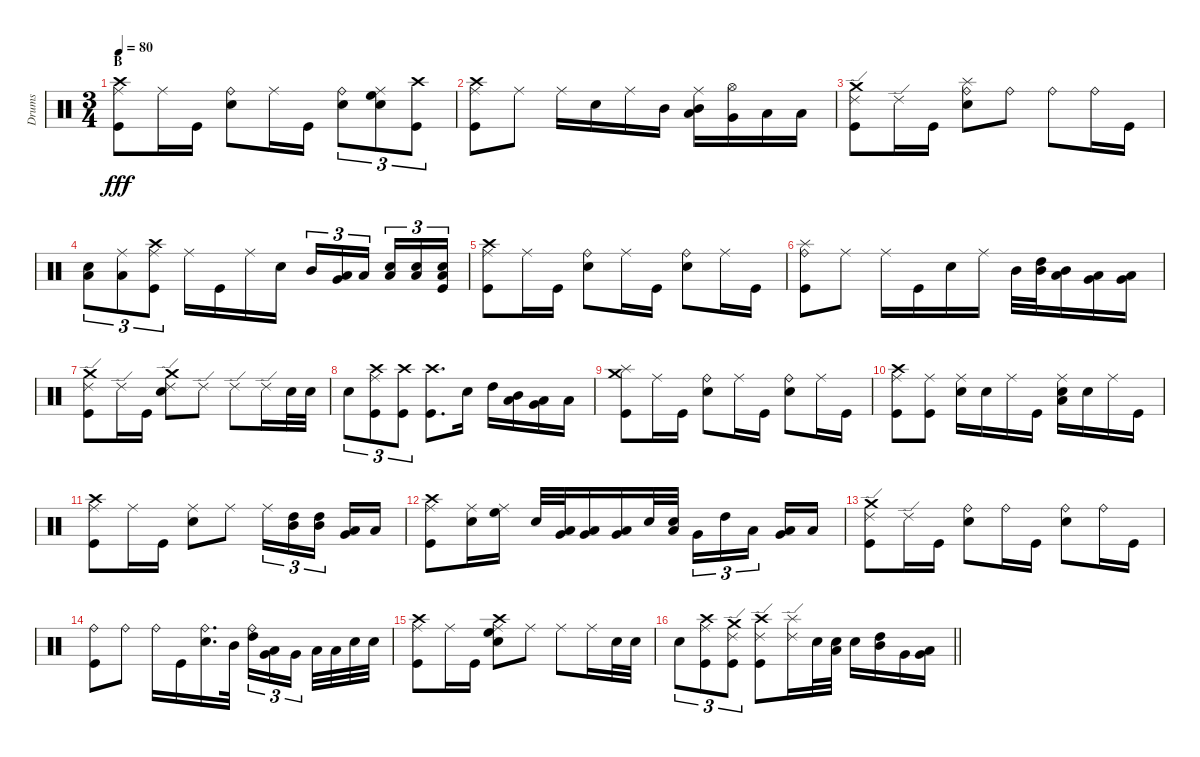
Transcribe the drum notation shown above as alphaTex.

\track ("Drums" "Drums") {instrument percussion}
\staff {score}
\articulation defaults
\ts (3 4)
\section ("" "B")
\tempo 80
\clef neutral
\ks c
("Ride (middle)" "Crash high (hit)" "Kick (hit)").8{dy fff} "Ride (middle)".16 "Kick (hit)".16 ("Ride (bell)" "Snare (hit) 2").8 "Ride (middle)".16 "Kick (hit)".16 ("Ride (bell)" "Snare (hit) 2").8{tu (3 2)} ("Ride (middle)" "High Floor Tom (hit)" "Snare (hit) 2").8{tu (3 2)} ("Crash high (hit)" "Kick (hit)").8{tu (3 2)} |
("Ride (middle)" "Crash high (hit)" "Kick (hit)").8 "Ride (middle)".8 "Ride (middle)".16 "Snare (hit) 2".16 "Ride (middle)".16 "Mid Tom (hit)".16 ("Ride (middle)" "Mid Tom (hit)" "Low Tom (hit)").16 ("Hi-Hat (open)" "Very Low Tom (hit)").16 "Low Floor Tom (hit)".16 "Low Floor Tom (hit)".16 |
("Ride (edge) 2" "Crash medium (hit)" "Kick (hit)").8 "Ride (edge) 2".16 "Kick (hit)".16 ("Ride (bell)" "Splash (hit)" "Snare (hit) 2").8 "Ride (bell)".8 "Ride (bell)".8 "Ride (bell)".16 "Kick (hit)".16 |
("Low Floor Tom (hit)" "Snare (hit) 2").8{tu (3 2)} ("Ride (middle)" "Low Tom (hit)").8{tu (3 2)} ("Ride (middle)" "Crash high (hit)" "Kick (hit)").8{tu (3 2)} "Ride (middle)".16 "Kick (hit)".16 "Ride (middle)".16 "Snare (hit) 2".16 "Mid Tom (hit)".16{tu (3 2)} ("Low Tom (hit)" "Very Low Tom (hit)").16{tu (3 2)} "Low Tom (hit)".16{tu (3 2)} ("Low Floor Tom (hit)" "Snare (hit) 2").16{tu (3 2)} ("Low Floor Tom (hit)" "Snare (hit) 2").16{tu (3 2)} ("Low Floor Tom (hit)" "Snare (hit) 2" "Kick (hit)").16{tu (3 2)} |
("Ride (middle)" "Crash high (hit)" "Kick (hit)").8 "Ride (middle)".16 "Kick (hit)".16 ("Ride (bell)" "Snare (hit) 2").8 "Ride (middle)".16 "Kick (hit)".16 ("Ride (bell)" "Snare (hit) 2").8 "Ride (middle)".16 "Kick (hit)".16 |
("Ride (bell)" "Splash (hit)" "Kick (hit)").8 "Ride (middle)".8 "Ride (middle)".16 "Kick (hit)".16 "Snare (hit) 2".16 "Ride (middle)".16 "Mid Tom (hit)".32 ("High Tom (hit)" "Mid Tom (hit)").32 ("Mid Tom (hit)" "Low Tom (hit)").16 ("Low Tom (hit)" "Very Low Tom (hit)").16 ("Very Low Tom (hit)" "Low Floor Tom (hit)").16 |
("Ride (edge) 2" "Crash medium (hit)" "Kick (hit)").8 "Ride (edge) 2".16 "Kick (hit)".16 ("Ride (edge) 2" "Crash medium (hit)" "Snare (hit) 2").8 "Ride (edge) 2".8 "Ride (edge) 2".8 "Ride (edge) 2".16 "Snare (hit) 2".32 "Snare (hit) 2".32 |
"Snare (hit) 2".8{tu (3 2)} ("Ride (middle)" "Crash high (hit)" "Kick (hit)").8{tu (3 2)} ("Crash high (hit)" "Kick (hit)").8{tu (3 2)} ("Crash high (hit)" "Kick (hit)").8{d} "Snare (hit) 2".16 "High Tom (hit)".16 ("Mid Tom (hit)" "Low Tom (hit)").16 ("Very Low Tom (hit)" "Low Floor Tom (hit)").16 "Low Floor Tom (hit)".16 |
("Crash medium (hit)" "Splash (hit)" "Kick (hit)").8 "Ride (middle)".16 "Kick (hit)".16 ("Ride (bell)" "Snare (hit) 2").8 "Ride (middle)".16 "Kick (hit)".16 ("Ride (bell)" "Snare (hit) 2").8 "Ride (middle)".16 "Kick (hit)".16 |
("Ride (middle)" "Crash high (hit)" "Kick (hit)").8 ("Ride (middle)" "Kick (hit)").8 ("Ride (middle)" "Snare (hit) 2").16 "Snare (hit) 2".16 "Ride (middle)".16 "Kick (hit)".16 ("Ride (middle)" "Low Floor Tom (hit)" "Snare (hit) 2").16 "Snare (hit) 2".16 "Ride (middle)".16 "Kick (hit)".16 |
("Ride (middle)" "Crash high (hit)" "Kick (hit)").8 "Ride (middle)".16 "Kick (hit)".16 ("Ride (middle)" "Snare (hit) 2").8 "Ride (middle)".8 "Ride (middle)".16{tu (3 2)} ("High Tom (hit)" "Mid Tom (hit)").16{tu (3 2)} ("High Tom (hit)" "Mid Tom (hit)").16{tu (3 2)} ("Very Low Tom (hit)" "Low Floor Tom (hit)").16 "Low Floor Tom (hit)".16 |
("Ride (middle)" "Crash high (hit)" "Kick (hit)").8 ("Ride (middle)" "Snare (hit) 2").16 ("Ride (middle)" "High Floor Tom (hit)").16 "Snare (hit) 2".32 ("Low Tom (hit)" "Very Low Tom (hit)").32 ("Low Tom (hit)" "Very Low Tom (hit)").16 ("Low Tom (hit)" "Very Low Tom (hit)").16 "Snare (hit) 2".32 ("Low Floor Tom (hit)" "Snare (hit) 2").32 "Very Low Tom (hit)".16{tu (3 2)} "High Tom (hit)".16{tu (3 2)} "Low Floor Tom (hit)".16{tu (3 2)} ("Low Tom (hit)" "Very Low Tom (hit)").16 "Low Floor Tom (hit)".16 |
("Ride (edge) 2" "Crash medium (hit)" "Kick (hit)").8 "Ride (edge) 2".16 "Kick (hit)".16 ("Ride (bell)" "Snare (hit) 2").8 "Ride (bell)".16 "Kick (hit)".16 ("Ride (bell)" "Snare (hit) 2").8 "Ride (bell)".16 "Kick (hit)".16 |
("Ride (bell)" "Kick (hit)").8 "Ride (bell)".8 "Ride (bell)".16 "Kick (hit)".16 ("Ride (bell)" "Snare (hit) 2").16{d} "Mid Tom (hit)".32 ("Ride (bell)" "High Tom (hit)").16{tu (3 2)} ("Low Tom (hit)" "Very Low Tom (hit)").16{tu (3 2)} "Very Low Tom (hit)".16{tu (3 2)} "Low Floor Tom (hit)".32 "Low Floor Tom (hit)".32 "Snare (hit) 2".32 "Snare (hit) 2".32 |
("Ride (middle)" "Crash high (hit)" "Kick (hit)").8 "Ride (middle)".16 "Kick (hit)".16 ("Ride (middle)" "Crash high (hit)" "High Floor Tom (hit)" "Snare (hit) 2").8 "Ride (middle)".8 "Ride (middle)".8 "Ride (middle)".16 "Snare (hit) 2".32 "Snare (hit) 2".32 |
\barLineRight lightlight "Snare (hit) 2".8{tu (3 2)}
("Ride (middle)" "Crash high (hit)" "Kick (hit)").8{tu (3 2)} ("Ride (edge) 2" "Crash medium (hit)" "Kick (hit)").8{tu (3 2)} ("Ride (edge) 2" "Crash high (hit)" "Kick (hit)").8 ("Ride (edge) 2" "Splash (hit)").16 "Snare (hit) 2".32 ("Low Floor Tom (hit)" "Snare (hit) 2").32 "Snare (hit) 2".16 ("High Tom (hit)" "Mid Tom (hit)").16 "Very Low Tom (hit)".16 ("Very Low Tom (hit)" "Low Floor Tom (hit)").16
